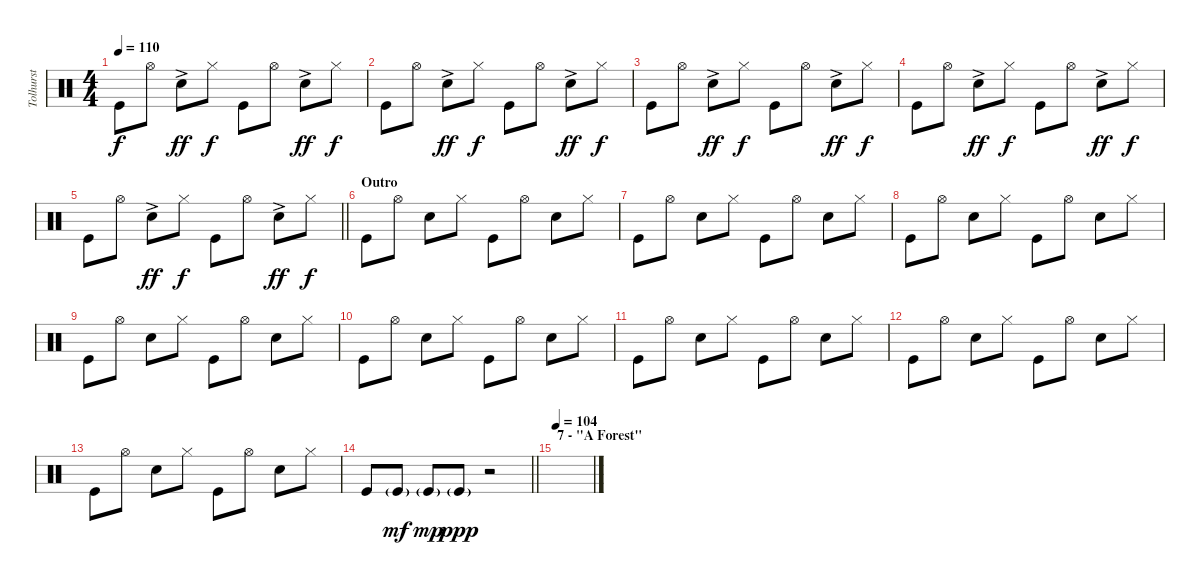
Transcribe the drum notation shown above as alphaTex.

\track ("Tolhurst" "Tolhurst") {instrument percussion}
\staff {score}
\articulation defaults
\ts (4 4)
\tempo 110
\clef neutral
\ks c "Kick (hit)".8{dy f} "Hi-Hat (open)".8 "Electric Snare (hit)"{ac}.8{dy ff} "Hi-Hat (closed)".8{dy f} "Kick (hit)".8 "Hi-Hat (open)".8 "Electric Snare (hit)"{ac}.8{dy ff} "Hi-Hat (closed)".8{dy f}
|
"Kick (hit)".8 "Hi-Hat (open)".8 "Electric Snare (hit)"{ac}.8{dy ff} "Hi-Hat (closed)".8{dy f} "Kick (hit)".8 "Hi-Hat (open)".8 "Electric Snare (hit)"{ac}.8{dy ff} "Hi-Hat (closed)".8{dy f} |
"Kick (hit)".8 "Hi-Hat (open)".8 "Electric Snare (hit)"{ac}.8{dy ff} "Hi-Hat (closed)".8{dy f} "Kick (hit)".8 "Hi-Hat (open)".8 "Electric Snare (hit)"{ac}.8{dy ff} "Hi-Hat (closed)".8{dy f} |
"Kick (hit)".8 "Hi-Hat (open)".8 "Electric Snare (hit)"{ac}.8{dy ff} "Hi-Hat (closed)".8{dy f} "Kick (hit)".8 "Hi-Hat (open)".8 "Electric Snare (hit)"{ac}.8{dy ff} "Hi-Hat (closed)".8{dy f} |
\barLineRight lightlight "Kick (hit)".8 "Hi-Hat (open)".8 "Electric Snare (hit)"{ac}.8{dy ff} "Hi-Hat (closed)".8{dy f} "Kick (hit)".8 "Hi-Hat (open)".8 "Electric Snare (hit)"{ac}.8{dy ff} "Hi-Hat (closed)".8{dy f}
|
\section ("" "Outro")
"Kick (hit)".8 "Hi-Hat (open)".8 "Snare (hit) 2".8 "Hi-Hat (closed)".8 "Kick (hit)".8 "Hi-Hat (open)".8 "Snare (hit) 2".8 "Hi-Hat (closed)".8 |
"Kick (hit)".8 "Hi-Hat (open)".8 "Snare (hit) 2".8 "Hi-Hat (closed)".8 "Kick (hit)".8 "Hi-Hat (open)".8 "Snare (hit) 2".8 "Hi-Hat (closed)".8 |
"Kick (hit)".8 "Hi-Hat (open)".8 "Snare (hit) 2".8 "Hi-Hat (closed)".8 "Kick (hit)".8 "Hi-Hat (open)".8 "Snare (hit) 2".8 "Hi-Hat (closed)".8 |
"Kick (hit)".8 "Hi-Hat (open)".8 "Snare (hit) 2".8 "Hi-Hat (closed)".8 "Kick (hit)".8 "Hi-Hat (open)".8 "Snare (hit) 2".8 "Hi-Hat (closed)".8 |
"Kick (hit)".8 "Hi-Hat (open)".8 "Snare (hit) 2".8 "Hi-Hat (closed)".8 "Kick (hit)".8 "Hi-Hat (open)".8 "Snare (hit) 2".8 "Hi-Hat (closed)".8 |
"Kick (hit)".8 "Hi-Hat (open)".8 "Snare (hit) 2".8 "Hi-Hat (closed)".8 "Kick (hit)".8 "Hi-Hat (open)".8 "Snare (hit) 2".8 "Hi-Hat (closed)".8 |
"Kick (hit)".8 "Hi-Hat (open)".8 "Snare (hit) 2".8 "Hi-Hat (closed)".8 "Kick (hit)".8 "Hi-Hat (open)".8 "Snare (hit) 2".8 "Hi-Hat (closed)".8 |
"Kick (hit)".8 "Hi-Hat (open)".8 "Snare (hit) 2".8 "Hi-Hat (closed)".8 "Kick (hit)".8 "Hi-Hat (open)".8 "Snare (hit) 2".8 "Hi-Hat (closed)".8 |
\barLineRight lightlight "Kick (hit)".8 "Kick (hit)"{g}.8{dy mf} "Kick (hit)"{g}.8{dy mp} "Kick (hit)"{g}.8{dy ppp}
r.2 |
\section ("" "7 - \"A Forest\"")
\tempo 104
